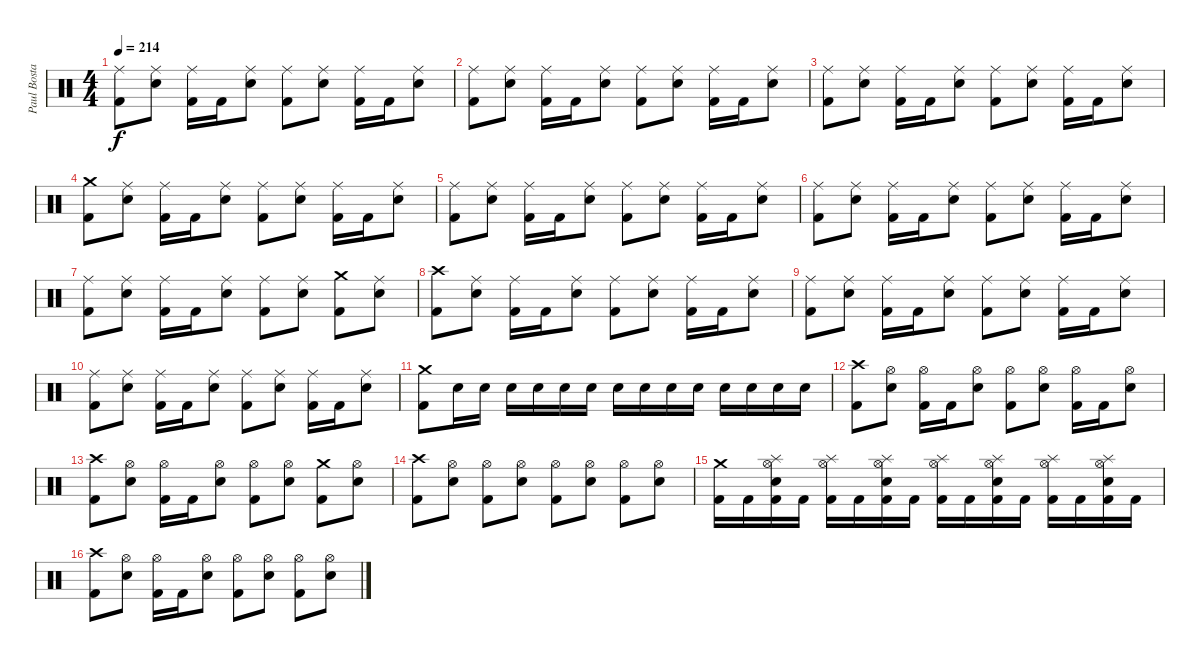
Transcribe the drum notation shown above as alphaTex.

\track ("Paul Bostaph" "Paul Bosta") {instrument percussion}
\staff {score}
\articulation defaults
\ts (4 4)
\tempo 214
\clef neutral
\ks c
("Kick (hit) 2" "Ride (middle)").8{dy f} ("Electric Snare (hit)" "Ride (middle)").8 ("Kick (hit) 2" "Ride (middle)").16 "Kick (hit) 2".16 ("Electric Snare (hit)" "Ride (middle)").8 ("Kick (hit) 2" "Ride (middle)").8 ("Electric Snare (hit)" "Ride (middle)").8 ("Kick (hit) 2" "Ride (middle)").16 "Kick (hit) 2".16 ("Electric Snare (hit)" "Ride (middle)").8 |
("Kick (hit) 2" "Ride (middle)").8 ("Electric Snare (hit)" "Ride (middle)").8 ("Kick (hit) 2" "Ride (middle)").16 "Kick (hit) 2".16 ("Electric Snare (hit)" "Ride (middle)").8 ("Kick (hit) 2" "Ride (middle)").8 ("Electric Snare (hit)" "Ride (middle)").8 ("Kick (hit) 2" "Ride (middle)").16 "Kick (hit) 2".16 ("Electric Snare (hit)" "Ride (middle)").8 |
("Kick (hit) 2" "Ride (middle)").8 ("Electric Snare (hit)" "Ride (middle)").8 ("Kick (hit) 2" "Ride (middle)").16 "Kick (hit) 2".16 ("Electric Snare (hit)" "Ride (middle)").8 ("Kick (hit) 2" "Ride (middle)").8 ("Electric Snare (hit)" "Ride (middle)").8 ("Kick (hit) 2" "Ride (middle)").16 "Kick (hit) 2".16 ("Electric Snare (hit)" "Ride (middle)").8 |
("Kick (hit) 2" "Crash medium (hit)").8 ("Electric Snare (hit)" "Ride (middle)").8 ("Kick (hit) 2" "Ride (middle)").16 "Kick (hit) 2".16 ("Electric Snare (hit)" "Ride (middle)").8 ("Kick (hit) 2" "Ride (middle)").8 ("Electric Snare (hit)" "Ride (middle)").8 ("Kick (hit) 2" "Ride (middle)").16 "Kick (hit) 2".16 ("Electric Snare (hit)" "Ride (middle)").8 |
("Kick (hit) 2" "Ride (middle)").8 ("Electric Snare (hit)" "Ride (middle)").8 ("Kick (hit) 2" "Ride (middle)").16 "Kick (hit) 2".16 ("Electric Snare (hit)" "Ride (middle)").8 ("Kick (hit) 2" "Ride (middle)").8 ("Electric Snare (hit)" "Ride (middle)").8 ("Kick (hit) 2" "Ride (middle)").16 "Kick (hit) 2".16 ("Electric Snare (hit)" "Ride (middle)").8 |
("Kick (hit) 2" "Ride (middle)").8 ("Electric Snare (hit)" "Ride (middle)").8 ("Kick (hit) 2" "Ride (middle)").16 "Kick (hit) 2".16 ("Electric Snare (hit)" "Ride (middle)").8 ("Kick (hit) 2" "Ride (middle)").8 ("Electric Snare (hit)" "Ride (middle)").8 ("Kick (hit) 2" "Ride (middle)").16 "Kick (hit) 2".16 ("Electric Snare (hit)" "Ride (middle)").8 |
("Kick (hit) 2" "Ride (middle)").8 ("Electric Snare (hit)" "Ride (middle)").8 ("Kick (hit) 2" "Ride (middle)").16 "Kick (hit) 2".16 ("Electric Snare (hit)" "Ride (middle)").8 ("Kick (hit) 2" "Ride (middle)").8 ("Electric Snare (hit)" "Ride (middle)").8 ("Kick (hit) 2" "Crash medium (hit)").8 ("Electric Snare (hit)" "Ride (middle)").8 |
("Kick (hit) 2" "Crash high (hit)").8 ("Electric Snare (hit)" "Ride (middle)").8 ("Kick (hit) 2" "Ride (middle)").16 "Kick (hit) 2".16 ("Electric Snare (hit)" "Ride (middle)").8 ("Kick (hit) 2" "Ride (middle)").8 ("Electric Snare (hit)" "Ride (middle)").8 ("Kick (hit) 2" "Ride (middle)").16 "Kick (hit) 2".16 ("Electric Snare (hit)" "Ride (middle)").8 |
("Kick (hit) 2" "Ride (middle)").8 ("Electric Snare (hit)" "Ride (middle)").8 ("Kick (hit) 2" "Ride (middle)").16 "Kick (hit) 2".16 ("Electric Snare (hit)" "Ride (middle)").8 ("Kick (hit) 2" "Ride (middle)").8 ("Electric Snare (hit)" "Ride (middle)").8 ("Kick (hit) 2" "Ride (middle)").16 "Kick (hit) 2".16 ("Electric Snare (hit)" "Ride (middle)").8 |
("Kick (hit) 2" "Ride (middle)").8 ("Electric Snare (hit)" "Ride (middle)").8 ("Kick (hit) 2" "Ride (middle)").16 "Kick (hit) 2".16 ("Electric Snare (hit)" "Ride (middle)").8 ("Kick (hit) 2" "Ride (middle)").8 ("Electric Snare (hit)" "Ride (middle)").8 ("Kick (hit) 2" "Ride (middle)").16 "Kick (hit) 2".16 ("Electric Snare (hit)" "Ride (middle)").8 |
("Crash medium (hit)" "Kick (hit) 2").8 "Electric Snare (hit)".16 "Electric Snare (hit)".16 "Electric Snare (hit)".16 "Electric Snare (hit)".16 "Electric Snare (hit)".16 "Electric Snare (hit)".16 "Electric Snare (hit)".16 "Electric Snare (hit)".16 "Electric Snare (hit)".16 "Electric Snare (hit)".16 "Electric Snare (hit)".16 "Electric Snare (hit)".16 "Electric Snare (hit)".16 "Electric Snare (hit)".16 |
("Kick (hit) 2" "Crash high (hit)").8 ("Electric Snare (hit)" "Hi-Hat (open)").8 ("Kick (hit) 2" "Hi-Hat (open)").16 "Kick (hit) 2".16 ("Electric Snare (hit)" "Hi-Hat (open)").8 ("Kick (hit) 2" "Hi-Hat (open)").8 ("Electric Snare (hit)" "Hi-Hat (open)").8 ("Kick (hit) 2" "Hi-Hat (open)").16 "Kick (hit) 2".16 ("Electric Snare (hit)" "Hi-Hat (open)").8 |
("Kick (hit) 2" "Crash high (hit)").8 ("Electric Snare (hit)" "Hi-Hat (open)").8 ("Kick (hit) 2" "Hi-Hat (open)").16 "Kick (hit) 2".16 ("Electric Snare (hit)" "Hi-Hat (open)").8 ("Kick (hit) 2" "Hi-Hat (open)").8 ("Electric Snare (hit)" "Hi-Hat (open)").8 ("Kick (hit) 2" "Crash medium (hit)").8 ("Electric Snare (hit)" "Hi-Hat (open)").8 |
("Kick (hit) 2" "Crash high (hit)").8 ("Electric Snare (hit)" "Hi-Hat (open)").8 ("Kick (hit) 2" "Hi-Hat (open)").8 ("Electric Snare (hit)" "Hi-Hat (open)").8 ("Kick (hit) 2" "Hi-Hat (open)").8 ("Electric Snare (hit)" "Hi-Hat (open)").8 ("Kick (hit) 2" "Hi-Hat (open)").8 ("Electric Snare (hit)" "Hi-Hat (open)").8 |
("Kick (hit) 2" "Crash medium (hit)").16 "Kick (hit) 2".16 ("Kick (hit) 2" "Electric Snare (hit)" "Hi-Hat (open)" "Splash (hit)").16 "Kick (hit) 2".16 ("Kick (hit) 2" "Hi-Hat (open)" "Splash (hit)").16 "Kick (hit) 2".16 ("Kick (hit) 2" "Electric Snare (hit)" "Hi-Hat (open)" "Splash (hit)").16 "Kick (hit) 2".16 ("Kick (hit) 2" "Hi-Hat (open)" "Splash (hit)").16 "Kick (hit) 2".16 ("Kick (hit) 2" "Electric Snare (hit)" "Hi-Hat (open)" "Splash (hit)").16 "Kick (hit) 2".16 ("Kick (hit) 2" "Hi-Hat (open)" "Splash (hit)").16 "Kick (hit) 2".16 ("Kick (hit) 2" "Electric Snare (hit)" "Hi-Hat (open)" "Splash (hit)").16 "Kick (hit) 2".16 |
("Kick (hit) 2" "Crash high (hit)").8 ("Electric Snare (hit)" "Hi-Hat (open)").8 ("Kick (hit) 2" "Hi-Hat (open)").16 "Kick (hit) 2".16 ("Electric Snare (hit)" "Hi-Hat (open)").8 ("Kick (hit) 2" "Hi-Hat (open)").8 ("Electric Snare (hit)" "Hi-Hat (open)").8 ("Kick (hit) 2" "Hi-Hat (open)").8 ("Electric Snare (hit)" "Hi-Hat (open)").8
